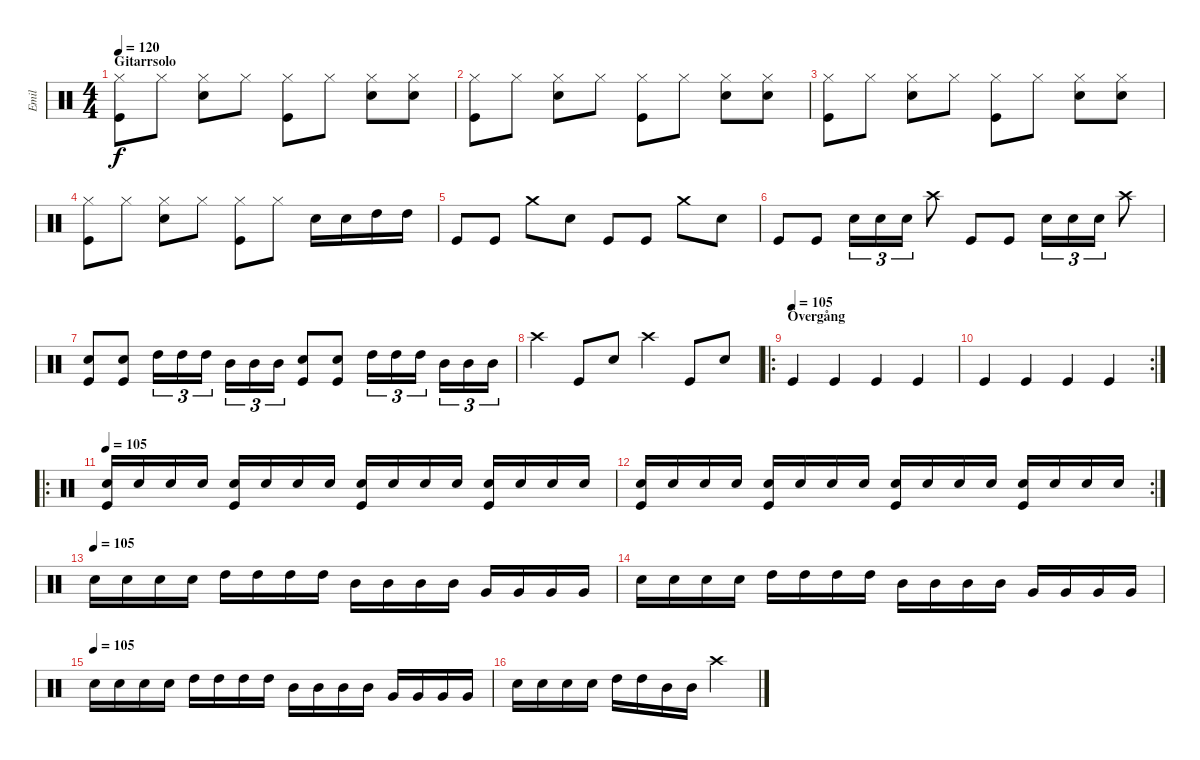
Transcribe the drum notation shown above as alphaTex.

\track ("Emil" "Emil") {instrument percussion}
\staff {score}
\articulation defaults
\ts (4 4)
\section ("" "Gitarrsolo")
\tempo 120
\clef neutral
\ks c
("Hi-Hat (closed)" "Kick (hit)").8{dy f} "Hi-Hat (closed)".8 ("Hi-Hat (closed)" "Electric Snare (hit)").8 "Hi-Hat (closed)".8 ("Hi-Hat (closed)" "Kick (hit)").8 "Hi-Hat (closed)".8 ("Hi-Hat (closed)" "Electric Snare (hit)").8 ("Hi-Hat (closed)" "Electric Snare (hit)").8 |
("Hi-Hat (closed)" "Kick (hit)").8 "Hi-Hat (closed)".8 ("Hi-Hat (closed)" "Electric Snare (hit)").8 "Hi-Hat (closed)".8 ("Hi-Hat (closed)" "Kick (hit)").8 "Hi-Hat (closed)".8 ("Hi-Hat (closed)" "Electric Snare (hit)").8 ("Hi-Hat (closed)" "Electric Snare (hit)").8 |
("Hi-Hat (closed)" "Kick (hit)").8 "Hi-Hat (closed)".8 ("Hi-Hat (closed)" "Electric Snare (hit)").8 "Hi-Hat (closed)".8 ("Hi-Hat (closed)" "Kick (hit)").8 "Hi-Hat (closed)".8 ("Hi-Hat (closed)" "Electric Snare (hit)").8 ("Hi-Hat (closed)" "Electric Snare (hit)").8 |
("Hi-Hat (closed)" "Kick (hit)").8 "Hi-Hat (closed)".8 ("Hi-Hat (closed)" "Electric Snare (hit)").8 "Hi-Hat (closed)".8 ("Hi-Hat (closed)" "Kick (hit)").8 "Hi-Hat (closed)".8 "Electric Snare (hit)".16 "Electric Snare (hit)".16 "High Tom (hit)".16 "High Tom (hit)".16 |
"Kick (hit)".8 "Kick (hit)".8 "Crash medium (hit)".8 "Electric Snare (hit)".8 "Kick (hit)".8 "Kick (hit)".8 "Crash medium (hit)".8 "Electric Snare (hit)".8 |
"Kick (hit)".8 "Kick (hit)".8 "Electric Snare (hit)".16{tu (3 2)} "Electric Snare (hit)".16{tu (3 2)} "Electric Snare (hit)".16{tu (3 2)} "Crash high (hit)".8 "Kick (hit)".8 "Kick (hit)".8 "Electric Snare (hit)".16{tu (3 2)} "Electric Snare (hit)".16{tu (3 2)} "Electric Snare (hit)".16{tu (3 2)} "Crash high (hit)".8 |
("Electric Snare (hit)" "Kick (hit)").8 ("Electric Snare (hit)" "Kick (hit)").8 "High Tom (hit)".16{tu (3 2)} "High Tom (hit)".16{tu (3 2)} "High Tom (hit)".16{tu (3 2)} "Mid Tom (hit)".16{tu (3 2)} "Mid Tom (hit)".16{tu (3 2)} "Mid Tom (hit)".16{tu (3 2)} ("Electric Snare (hit)" "Kick (hit)").8 ("Electric Snare (hit)" "Kick (hit)").8 "High Tom (hit)".16{tu (3 2)} "High Tom (hit)".16{tu (3 2)} "High Tom (hit)".16{tu (3 2)} "Mid Tom (hit)".16{tu (3 2)} "Mid Tom (hit)".16{tu (3 2)} "Mid Tom (hit)".16{tu (3 2)} |
"Crash high (hit)".4 "Kick (hit)".8 "Electric Snare (hit)".8 "Crash high (hit)".4 "Kick (hit)".8 "Electric Snare (hit)".8 |
\ro
\section ("" "Övergång")
\tempo (105)
"Kick (hit)".4 "Kick (hit)".4 "Kick (hit)".4 "Kick (hit)".4 |
\rc 2 "Kick (hit)".4 "Kick (hit)".4 "Kick (hit)".4 "Kick (hit)".4
|
\ro
\tempo 105
("Electric Snare (hit)" "Kick (hit)").16 "Electric Snare (hit)".16 "Electric Snare (hit)".16 "Electric Snare (hit)".16 ("Electric Snare (hit)" "Kick (hit)").16 "Electric Snare (hit)".16 "Electric Snare (hit)".16 "Electric Snare (hit)".16 ("Electric Snare (hit)" "Kick (hit)").16 "Electric Snare (hit)".16 "Electric Snare (hit)".16 "Electric Snare (hit)".16 ("Electric Snare (hit)" "Kick (hit)").16 "Electric Snare (hit)".16 "Electric Snare (hit)".16 "Electric Snare (hit)".16 |
\rc 2
("Electric Snare (hit)" "Kick (hit)").16 "Electric Snare (hit)".16 "Electric Snare (hit)".16 "Electric Snare (hit)".16 ("Electric Snare (hit)" "Kick (hit)").16 "Electric Snare (hit)".16 "Electric Snare (hit)".16 "Electric Snare (hit)".16 ("Electric Snare (hit)" "Kick (hit)").16 "Electric Snare (hit)".16 "Electric Snare (hit)".16 "Electric Snare (hit)".16 ("Electric Snare (hit)" "Kick (hit)").16 "Electric Snare (hit)".16 "Electric Snare (hit)".16 "Electric Snare (hit)".16 |
\tempo (105)
"Electric Snare (hit)".16 "Electric Snare (hit)".16 "Electric Snare (hit)".16 "Electric Snare (hit)".16 "High Tom (hit)".16 "High Tom (hit)".16 "High Tom (hit)".16 "High Tom (hit)".16 "Mid Tom (hit)".16 "Mid Tom (hit)".16 "Mid Tom (hit)".16 "Mid Tom (hit)".16 "Very Low Tom (hit)".16 "Very Low Tom (hit)".16 "Very Low Tom (hit)".16 "Very Low Tom (hit)".16 |
"Electric Snare (hit)".16 "Electric Snare (hit)".16 "Electric Snare (hit)".16 "Electric Snare (hit)".16 "High Tom (hit)".16 "High Tom (hit)".16 "High Tom (hit)".16 "High Tom (hit)".16 "Mid Tom (hit)".16 "Mid Tom (hit)".16 "Mid Tom (hit)".16 "Mid Tom (hit)".16 "Very Low Tom (hit)".16 "Very Low Tom (hit)".16 "Very Low Tom (hit)".16 "Very Low Tom (hit)".16 |
\tempo (105)
"Electric Snare (hit)".16 "Electric Snare (hit)".16 "Electric Snare (hit)".16 "Electric Snare (hit)".16 "High Tom (hit)".16 "High Tom (hit)".16 "High Tom (hit)".16 "High Tom (hit)".16 "Mid Tom (hit)".16 "Mid Tom (hit)".16 "Mid Tom (hit)".16 "Mid Tom (hit)".16 "Very Low Tom (hit)".16 "Very Low Tom (hit)".16 "Very Low Tom (hit)".16 "Very Low Tom (hit)".16 |
"Electric Snare (hit)".16 "Electric Snare (hit)".16 "Electric Snare (hit)".16 "Electric Snare (hit)".16 "High Tom (hit)".16 "High Tom (hit)".16 "Mid Tom (hit)".16 "Mid Tom (hit)".16 "Crash high (hit)".2
